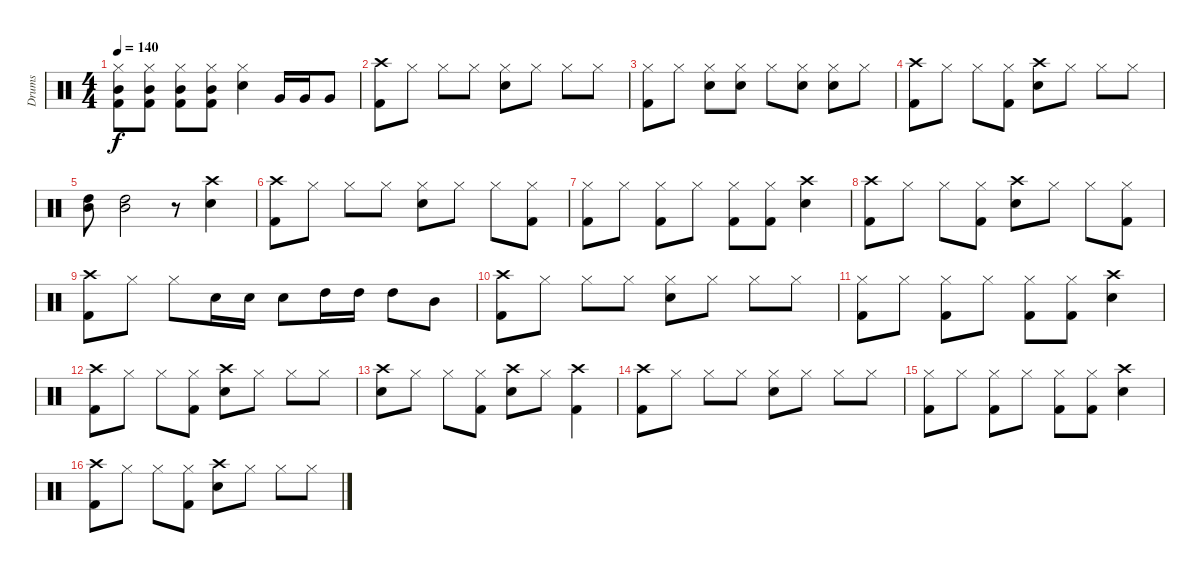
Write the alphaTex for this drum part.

\track ("Drums" "Drums") {instrument percussion}
\staff {score}
\articulation defaults
\ts (4 4)
\tempo 140
\clef neutral
\ks c
("Hi-Hat (closed)" "Mid Tom (hit)" "Kick (hit) 2").8{dy f} ("Hi-Hat (closed)" "Mid Tom (hit)" "Kick (hit) 2").8 ("Hi-Hat (closed)" "Mid Tom (hit)" "Kick (hit) 2").8 ("Hi-Hat (closed)" "Mid Tom (hit)" "Kick (hit) 2").8 ("Hi-Hat (closed)" "Snare (hit) 2").4 "Very Low Tom (hit)".16 "Very Low Tom (hit)".16 "Very Low Tom (hit)".8 |
("Crash high (hit)" "Kick (hit) 2").8 "Hi-Hat (closed)".8 "Hi-Hat (closed)".8 "Hi-Hat (closed)".8 ("Hi-Hat (closed)" "Snare (hit) 2").8 "Hi-Hat (closed)".8 "Hi-Hat (closed)".8 "Hi-Hat (closed)".8 |
("Hi-Hat (closed)" "Kick (hit) 2").8 "Hi-Hat (closed)".8 ("Hi-Hat (closed)" "Snare (hit) 2").8 ("Hi-Hat (closed)" "Snare (hit) 2").8 "Hi-Hat (closed)".8 ("Hi-Hat (closed)" "Snare (hit) 2").8 ("Hi-Hat (closed)" "Snare (hit) 2").8 "Hi-Hat (closed)".8 |
("Crash high (hit)" "Kick (hit) 2").8 "Hi-Hat (closed)".8 "Hi-Hat (closed)".8 ("Hi-Hat (closed)" "Kick (hit) 2").8 ("Crash high (hit)" "Snare (hit) 2").8 "Hi-Hat (closed)".8 "Hi-Hat (closed)".8 "Hi-Hat (closed)".8 |
("High Tom (hit)" "Mid Tom (hit)").8 ("High Tom (hit)" "Mid Tom (hit)").2 r.8 ("Crash high (hit)" "Snare (hit) 2").4 |
("Crash high (hit)" "Kick (hit) 2").8 "Hi-Hat (closed)".8 "Hi-Hat (closed)".8 "Hi-Hat (closed)".8 ("Hi-Hat (closed)" "Snare (hit) 2").8 "Hi-Hat (closed)".8 "Hi-Hat (closed)".8 ("Hi-Hat (closed)" "Kick (hit) 2").8 |
("Hi-Hat (closed)" "Kick (hit) 2").8 "Hi-Hat (closed)".8 ("Hi-Hat (closed)" "Kick (hit) 2").8 "Hi-Hat (closed)".8 ("Hi-Hat (closed)" "Kick (hit) 2").8 ("Hi-Hat (closed)" "Kick (hit) 2").8 ("Crash high (hit)" "Snare (hit) 2").4 |
("Crash high (hit)" "Kick (hit) 2").8 "Hi-Hat (closed)".8 "Hi-Hat (closed)".8 ("Hi-Hat (closed)" "Kick (hit) 2").8 ("Crash high (hit)" "Snare (hit) 2").8 "Hi-Hat (closed)".8 "Hi-Hat (closed)".8 ("Hi-Hat (closed)" "Kick (hit) 2").8 |
("Crash high (hit)" "Kick (hit) 2").8 "Hi-Hat (closed)".8 "Hi-Hat (closed)".8 "Snare (hit) 2".16 "Snare (hit) 2".16 "Snare (hit) 2".8 "High Tom (hit)".16 "High Tom (hit)".16 "High Tom (hit)".8 "Mid Tom (hit)".8 |
("Crash high (hit)" "Kick (hit) 2").8 "Hi-Hat (closed)".8 "Hi-Hat (closed)".8 "Hi-Hat (closed)".8 ("Hi-Hat (closed)" "Snare (hit) 2").8 "Hi-Hat (closed)".8 "Hi-Hat (closed)".8 "Hi-Hat (closed)".8 |
("Hi-Hat (closed)" "Kick (hit) 2").8 "Hi-Hat (closed)".8 ("Hi-Hat (closed)" "Kick (hit) 2").8 "Hi-Hat (closed)".8 ("Hi-Hat (closed)" "Kick (hit) 2").8 ("Hi-Hat (closed)" "Kick (hit) 2").8 ("Crash high (hit)" "Snare (hit) 2").4 |
("Crash high (hit)" "Kick (hit) 2").8 "Hi-Hat (closed)".8 "Hi-Hat (closed)".8 ("Hi-Hat (closed)" "Kick (hit) 2").8 ("Crash high (hit)" "Snare (hit) 2").8 "Hi-Hat (closed)".8 "Hi-Hat (closed)".8 "Hi-Hat (closed)".8 |
("Crash high (hit)" "Snare (hit) 2").8 "Hi-Hat (closed)".8 "Hi-Hat (closed)".8 ("Hi-Hat (closed)" "Kick (hit) 2").8 ("Crash high (hit)" "Snare (hit) 2").8 "Hi-Hat (closed)".8 ("Crash high (hit)" "Kick (hit) 2").4 |
("Crash high (hit)" "Kick (hit) 2").8 "Hi-Hat (closed)".8 "Hi-Hat (closed)".8 "Hi-Hat (closed)".8 ("Hi-Hat (closed)" "Snare (hit) 2").8 "Hi-Hat (closed)".8 "Hi-Hat (closed)".8 "Hi-Hat (closed)".8 |
("Hi-Hat (closed)" "Kick (hit) 2").8 "Hi-Hat (closed)".8 ("Hi-Hat (closed)" "Kick (hit) 2").8 "Hi-Hat (closed)".8 ("Hi-Hat (closed)" "Kick (hit) 2").8 ("Hi-Hat (closed)" "Kick (hit) 2").8 ("Crash high (hit)" "Snare (hit) 2").4 |
("Crash high (hit)" "Kick (hit) 2").8 "Hi-Hat (closed)".8 "Hi-Hat (closed)".8 ("Hi-Hat (closed)" "Kick (hit) 2").8 ("Crash high (hit)" "Snare (hit) 2").8 "Hi-Hat (closed)".8 "Hi-Hat (closed)".8 "Hi-Hat (closed)".8
